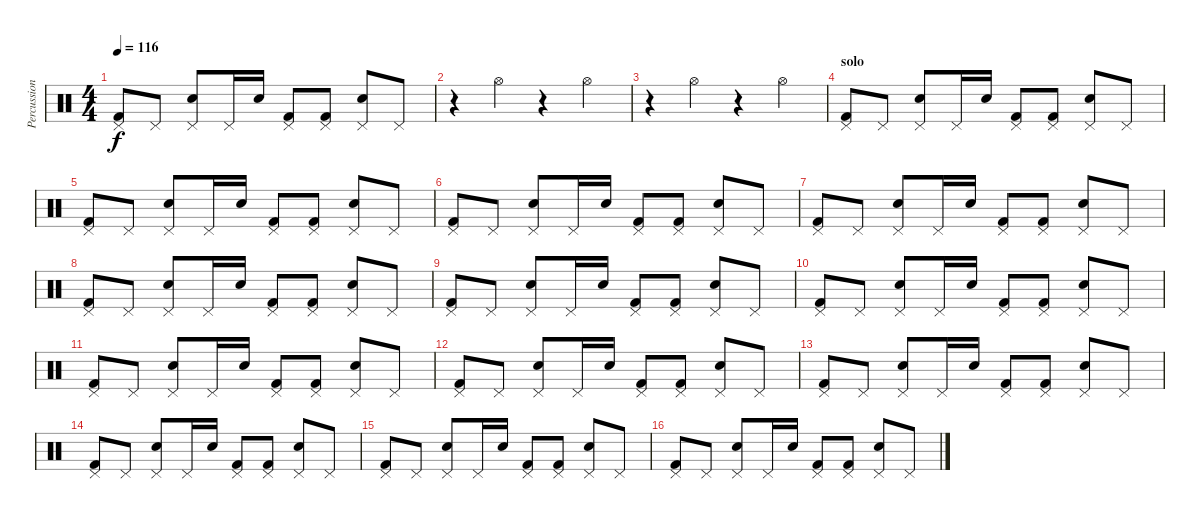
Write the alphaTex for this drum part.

\track ("Percussions" "Percussion") {instrument percussion}
\staff {score}
\articulation defaults
\ts (4 4)
\tempo 116
\clef neutral
\ks c
("Pedal Hi-Hat (hit)" "Kick (hit) 2").8{dy f} "Pedal Hi-Hat (hit)".8 ("Pedal Hi-Hat (hit)" "Electric Snare (hit)").8 "Pedal Hi-Hat (hit)".16 "Electric Snare (hit)".16 ("Pedal Hi-Hat (hit)" "Kick (hit) 2").8 ("Pedal Hi-Hat (hit)" "Kick (hit) 2").8 ("Pedal Hi-Hat (hit)" "Electric Snare (hit)").8 "Pedal Hi-Hat (hit)".8 |
r.4 "Hi-Hat (open)".4 r.4 "Hi-Hat (open)".4 |
r.4 "Hi-Hat (open)".4 r.4 "Hi-Hat (open)".4 |
\section ("" "solo")
("Pedal Hi-Hat (hit)" "Kick (hit) 2").8 "Pedal Hi-Hat (hit)".8 ("Pedal Hi-Hat (hit)" "Electric Snare (hit)").8 "Pedal Hi-Hat (hit)".16 "Electric Snare (hit)".16 ("Pedal Hi-Hat (hit)" "Kick (hit) 2").8 ("Pedal Hi-Hat (hit)" "Kick (hit) 2").8 ("Pedal Hi-Hat (hit)" "Electric Snare (hit)").8 "Pedal Hi-Hat (hit)".8 |
("Pedal Hi-Hat (hit)" "Kick (hit) 2").8 "Pedal Hi-Hat (hit)".8 ("Pedal Hi-Hat (hit)" "Electric Snare (hit)").8 "Pedal Hi-Hat (hit)".16 "Electric Snare (hit)".16 ("Pedal Hi-Hat (hit)" "Kick (hit) 2").8 ("Pedal Hi-Hat (hit)" "Kick (hit) 2").8 ("Pedal Hi-Hat (hit)" "Electric Snare (hit)").8 "Pedal Hi-Hat (hit)".8 |
("Pedal Hi-Hat (hit)" "Kick (hit) 2").8 "Pedal Hi-Hat (hit)".8 ("Pedal Hi-Hat (hit)" "Electric Snare (hit)").8 "Pedal Hi-Hat (hit)".16 "Electric Snare (hit)".16 ("Pedal Hi-Hat (hit)" "Kick (hit) 2").8 ("Pedal Hi-Hat (hit)" "Kick (hit) 2").8 ("Pedal Hi-Hat (hit)" "Electric Snare (hit)").8 "Pedal Hi-Hat (hit)".8 |
("Pedal Hi-Hat (hit)" "Kick (hit) 2").8 "Pedal Hi-Hat (hit)".8 ("Pedal Hi-Hat (hit)" "Electric Snare (hit)").8 "Pedal Hi-Hat (hit)".16 "Electric Snare (hit)".16 ("Pedal Hi-Hat (hit)" "Kick (hit) 2").8 ("Pedal Hi-Hat (hit)" "Kick (hit) 2").8 ("Pedal Hi-Hat (hit)" "Electric Snare (hit)").8 "Pedal Hi-Hat (hit)".8 |
("Pedal Hi-Hat (hit)" "Kick (hit) 2").8 "Pedal Hi-Hat (hit)".8 ("Pedal Hi-Hat (hit)" "Electric Snare (hit)").8 "Pedal Hi-Hat (hit)".16 "Electric Snare (hit)".16 ("Pedal Hi-Hat (hit)" "Kick (hit) 2").8 ("Pedal Hi-Hat (hit)" "Kick (hit) 2").8 ("Pedal Hi-Hat (hit)" "Electric Snare (hit)").8 "Pedal Hi-Hat (hit)".8 |
("Pedal Hi-Hat (hit)" "Kick (hit) 2").8 "Pedal Hi-Hat (hit)".8 ("Pedal Hi-Hat (hit)" "Electric Snare (hit)").8 "Pedal Hi-Hat (hit)".16 "Electric Snare (hit)".16 ("Pedal Hi-Hat (hit)" "Kick (hit) 2").8 ("Pedal Hi-Hat (hit)" "Kick (hit) 2").8 ("Pedal Hi-Hat (hit)" "Electric Snare (hit)").8 "Pedal Hi-Hat (hit)".8 |
("Pedal Hi-Hat (hit)" "Kick (hit) 2").8 "Pedal Hi-Hat (hit)".8 ("Pedal Hi-Hat (hit)" "Electric Snare (hit)").8 "Pedal Hi-Hat (hit)".16 "Electric Snare (hit)".16 ("Pedal Hi-Hat (hit)" "Kick (hit) 2").8 ("Pedal Hi-Hat (hit)" "Kick (hit) 2").8 ("Pedal Hi-Hat (hit)" "Electric Snare (hit)").8 "Pedal Hi-Hat (hit)".8 |
("Pedal Hi-Hat (hit)" "Kick (hit) 2").8 "Pedal Hi-Hat (hit)".8 ("Pedal Hi-Hat (hit)" "Electric Snare (hit)").8 "Pedal Hi-Hat (hit)".16 "Electric Snare (hit)".16 ("Pedal Hi-Hat (hit)" "Kick (hit) 2").8 ("Pedal Hi-Hat (hit)" "Kick (hit) 2").8 ("Pedal Hi-Hat (hit)" "Electric Snare (hit)").8 "Pedal Hi-Hat (hit)".8 |
("Pedal Hi-Hat (hit)" "Kick (hit) 2").8 "Pedal Hi-Hat (hit)".8 ("Pedal Hi-Hat (hit)" "Electric Snare (hit)").8 "Pedal Hi-Hat (hit)".16 "Electric Snare (hit)".16 ("Pedal Hi-Hat (hit)" "Kick (hit) 2").8 ("Pedal Hi-Hat (hit)" "Kick (hit) 2").8 ("Pedal Hi-Hat (hit)" "Electric Snare (hit)").8 "Pedal Hi-Hat (hit)".8 |
("Pedal Hi-Hat (hit)" "Kick (hit) 2").8 "Pedal Hi-Hat (hit)".8 ("Pedal Hi-Hat (hit)" "Electric Snare (hit)").8 "Pedal Hi-Hat (hit)".16 "Electric Snare (hit)".16 ("Pedal Hi-Hat (hit)" "Kick (hit) 2").8 ("Pedal Hi-Hat (hit)" "Kick (hit) 2").8 ("Pedal Hi-Hat (hit)" "Electric Snare (hit)").8 "Pedal Hi-Hat (hit)".8 |
("Pedal Hi-Hat (hit)" "Kick (hit) 2").8 "Pedal Hi-Hat (hit)".8 ("Pedal Hi-Hat (hit)" "Electric Snare (hit)").8 "Pedal Hi-Hat (hit)".16 "Electric Snare (hit)".16 ("Pedal Hi-Hat (hit)" "Kick (hit) 2").8 ("Pedal Hi-Hat (hit)" "Kick (hit) 2").8 ("Pedal Hi-Hat (hit)" "Electric Snare (hit)").8 "Pedal Hi-Hat (hit)".8 |
("Pedal Hi-Hat (hit)" "Kick (hit) 2").8 "Pedal Hi-Hat (hit)".8 ("Pedal Hi-Hat (hit)" "Electric Snare (hit)").8 "Pedal Hi-Hat (hit)".16 "Electric Snare (hit)".16 ("Pedal Hi-Hat (hit)" "Kick (hit) 2").8 ("Pedal Hi-Hat (hit)" "Kick (hit) 2").8 ("Pedal Hi-Hat (hit)" "Electric Snare (hit)").8 "Pedal Hi-Hat (hit)".8 |
("Pedal Hi-Hat (hit)" "Kick (hit) 2").8 "Pedal Hi-Hat (hit)".8 ("Pedal Hi-Hat (hit)" "Electric Snare (hit)").8 "Pedal Hi-Hat (hit)".16 "Electric Snare (hit)".16 ("Pedal Hi-Hat (hit)" "Kick (hit) 2").8 ("Pedal Hi-Hat (hit)" "Kick (hit) 2").8 ("Pedal Hi-Hat (hit)" "Electric Snare (hit)").8 "Pedal Hi-Hat (hit)".8
